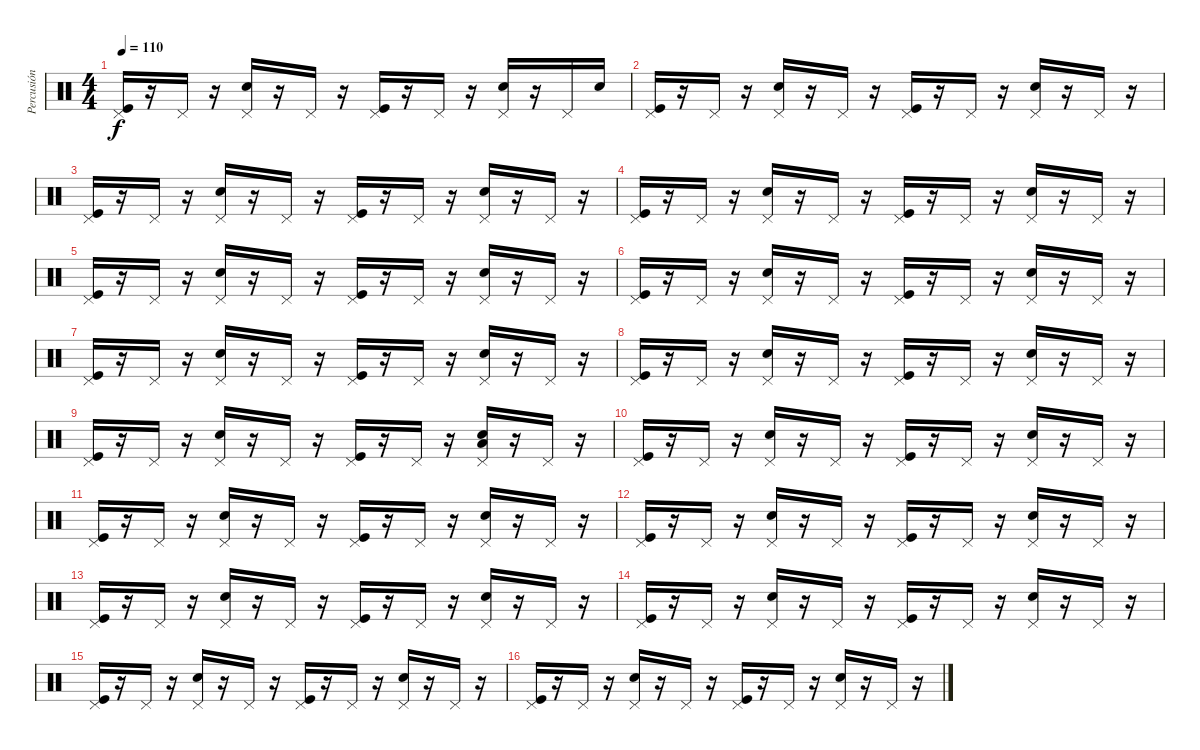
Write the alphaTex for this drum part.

\track ("Percusión" "Percusión") {instrument percussion}
\staff {score}
\articulation defaults
\ts (4 4)
\tempo 110
\clef neutral
\ks c
("Pedal Hi-Hat (hit)" "Kick (hit)").16{dy f} r.16 "Pedal Hi-Hat (hit)".16 r.16 ("Pedal Hi-Hat (hit)" "Electric Snare (hit)").16 r.16 "Pedal Hi-Hat (hit)".16 r.16 ("Pedal Hi-Hat (hit)" "Kick (hit)").16 r.16 "Pedal Hi-Hat (hit)".16 r.16 ("Pedal Hi-Hat (hit)" "Electric Snare (hit)").16 r.16 "Pedal Hi-Hat (hit)".16 "Electric Snare (hit)".16 |
("Pedal Hi-Hat (hit)" "Kick (hit)").16 r.16 "Pedal Hi-Hat (hit)".16 r.16 ("Pedal Hi-Hat (hit)" "Electric Snare (hit)").16 r.16 "Pedal Hi-Hat (hit)".16 r.16 ("Pedal Hi-Hat (hit)" "Kick (hit)").16 r.16 "Pedal Hi-Hat (hit)".16 r.16 ("Pedal Hi-Hat (hit)" "Electric Snare (hit)").16 r.16 "Pedal Hi-Hat (hit)".16 r.16 |
("Pedal Hi-Hat (hit)" "Kick (hit)").16 r.16 "Pedal Hi-Hat (hit)".16 r.16 ("Pedal Hi-Hat (hit)" "Electric Snare (hit)").16 r.16 "Pedal Hi-Hat (hit)".16 r.16 ("Pedal Hi-Hat (hit)" "Kick (hit)").16 r.16 "Pedal Hi-Hat (hit)".16 r.16 ("Pedal Hi-Hat (hit)" "Electric Snare (hit)").16 r.16 "Pedal Hi-Hat (hit)".16 r.16 |
("Pedal Hi-Hat (hit)" "Kick (hit)").16 r.16 "Pedal Hi-Hat (hit)".16 r.16 ("Pedal Hi-Hat (hit)" "Electric Snare (hit)").16 r.16 "Pedal Hi-Hat (hit)".16 r.16 ("Pedal Hi-Hat (hit)" "Kick (hit)").16 r.16 "Pedal Hi-Hat (hit)".16 r.16 ("Pedal Hi-Hat (hit)" "Electric Snare (hit)").16 r.16 "Pedal Hi-Hat (hit)".16 r.16 |
("Pedal Hi-Hat (hit)" "Kick (hit)").16 r.16 "Pedal Hi-Hat (hit)".16 r.16 ("Pedal Hi-Hat (hit)" "Electric Snare (hit)").16 r.16 "Pedal Hi-Hat (hit)".16 r.16 ("Pedal Hi-Hat (hit)" "Kick (hit)").16 r.16 "Pedal Hi-Hat (hit)".16 r.16 ("Pedal Hi-Hat (hit)" "Electric Snare (hit)").16 r.16 "Pedal Hi-Hat (hit)".16 r.16 |
("Pedal Hi-Hat (hit)" "Kick (hit)").16 r.16 "Pedal Hi-Hat (hit)".16 r.16 ("Pedal Hi-Hat (hit)" "Electric Snare (hit)").16 r.16 "Pedal Hi-Hat (hit)".16 r.16 ("Pedal Hi-Hat (hit)" "Kick (hit)").16 r.16 "Pedal Hi-Hat (hit)".16 r.16 ("Pedal Hi-Hat (hit)" "Electric Snare (hit)").16 r.16 "Pedal Hi-Hat (hit)".16 r.16 |
("Pedal Hi-Hat (hit)" "Kick (hit)").16 r.16 "Pedal Hi-Hat (hit)".16 r.16 ("Pedal Hi-Hat (hit)" "Electric Snare (hit)").16 r.16 "Pedal Hi-Hat (hit)".16 r.16 ("Pedal Hi-Hat (hit)" "Kick (hit)").16 r.16 "Pedal Hi-Hat (hit)".16 r.16 ("Pedal Hi-Hat (hit)" "Electric Snare (hit)").16 r.16 "Pedal Hi-Hat (hit)".16 r.16 |
("Pedal Hi-Hat (hit)" "Kick (hit)").16 r.16 "Pedal Hi-Hat (hit)".16 r.16 ("Pedal Hi-Hat (hit)" "Electric Snare (hit)").16 r.16 "Pedal Hi-Hat (hit)".16 r.16 ("Pedal Hi-Hat (hit)" "Kick (hit)").16 r.16 "Pedal Hi-Hat (hit)".16 r.16 ("Pedal Hi-Hat (hit)" "Electric Snare (hit)").16 r.16 "Pedal Hi-Hat (hit)".16 r.16 |
("Pedal Hi-Hat (hit)" "Kick (hit)").16 r.16 "Pedal Hi-Hat (hit)".16 r.16 ("Pedal Hi-Hat (hit)" "Electric Snare (hit)").16 r.16 "Pedal Hi-Hat (hit)".16 r.16 ("Pedal Hi-Hat (hit)" "Kick (hit)").16 r.16 "Pedal Hi-Hat (hit)".16 r.16 ("Pedal Hi-Hat (hit)" "Electric Snare (hit)" "Low Floor Tom (hit)").16 r.16 "Pedal Hi-Hat (hit)".16 r.16 |
("Pedal Hi-Hat (hit)" "Kick (hit)").16 r.16 "Pedal Hi-Hat (hit)".16 r.16 ("Pedal Hi-Hat (hit)" "Electric Snare (hit)").16 r.16 "Pedal Hi-Hat (hit)".16 r.16 ("Pedal Hi-Hat (hit)" "Kick (hit)").16 r.16 "Pedal Hi-Hat (hit)".16 r.16 ("Pedal Hi-Hat (hit)" "Electric Snare (hit)").16 r.16 "Pedal Hi-Hat (hit)".16 r.16 |
("Pedal Hi-Hat (hit)" "Kick (hit)").16 r.16 "Pedal Hi-Hat (hit)".16 r.16 ("Pedal Hi-Hat (hit)" "Electric Snare (hit)").16 r.16 "Pedal Hi-Hat (hit)".16 r.16 ("Pedal Hi-Hat (hit)" "Kick (hit)").16 r.16 "Pedal Hi-Hat (hit)".16 r.16 ("Pedal Hi-Hat (hit)" "Electric Snare (hit)").16 r.16 "Pedal Hi-Hat (hit)".16 r.16 |
("Pedal Hi-Hat (hit)" "Kick (hit)").16 r.16 "Pedal Hi-Hat (hit)".16 r.16 ("Pedal Hi-Hat (hit)" "Electric Snare (hit)").16 r.16 "Pedal Hi-Hat (hit)".16 r.16 ("Pedal Hi-Hat (hit)" "Kick (hit)").16 r.16 "Pedal Hi-Hat (hit)".16 r.16 ("Pedal Hi-Hat (hit)" "Electric Snare (hit)").16 r.16 "Pedal Hi-Hat (hit)".16 r.16 |
("Pedal Hi-Hat (hit)" "Kick (hit)").16 r.16 "Pedal Hi-Hat (hit)".16 r.16 ("Pedal Hi-Hat (hit)" "Electric Snare (hit)").16 r.16 "Pedal Hi-Hat (hit)".16 r.16 ("Pedal Hi-Hat (hit)" "Kick (hit)").16 r.16 "Pedal Hi-Hat (hit)".16 r.16 ("Pedal Hi-Hat (hit)" "Electric Snare (hit)").16 r.16 "Pedal Hi-Hat (hit)".16 r.16 |
("Pedal Hi-Hat (hit)" "Kick (hit)").16 r.16 "Pedal Hi-Hat (hit)".16 r.16 ("Pedal Hi-Hat (hit)" "Electric Snare (hit)").16 r.16 "Pedal Hi-Hat (hit)".16 r.16 ("Pedal Hi-Hat (hit)" "Kick (hit)").16 r.16 "Pedal Hi-Hat (hit)".16 r.16 ("Pedal Hi-Hat (hit)" "Electric Snare (hit)").16 r.16 "Pedal Hi-Hat (hit)".16 r.16 |
("Pedal Hi-Hat (hit)" "Kick (hit)").16 r.16 "Pedal Hi-Hat (hit)".16 r.16 ("Pedal Hi-Hat (hit)" "Electric Snare (hit)").16 r.16 "Pedal Hi-Hat (hit)".16 r.16 ("Pedal Hi-Hat (hit)" "Kick (hit)").16 r.16 "Pedal Hi-Hat (hit)".16 r.16 ("Pedal Hi-Hat (hit)" "Electric Snare (hit)").16 r.16 "Pedal Hi-Hat (hit)".16 r.16 |
("Pedal Hi-Hat (hit)" "Kick (hit)").16 r.16 "Pedal Hi-Hat (hit)".16 r.16 ("Pedal Hi-Hat (hit)" "Electric Snare (hit)").16 r.16 "Pedal Hi-Hat (hit)".16 r.16 ("Pedal Hi-Hat (hit)" "Kick (hit)").16 r.16 "Pedal Hi-Hat (hit)".16 r.16 ("Pedal Hi-Hat (hit)" "Electric Snare (hit)").16 r.16 "Pedal Hi-Hat (hit)".16 r.16
